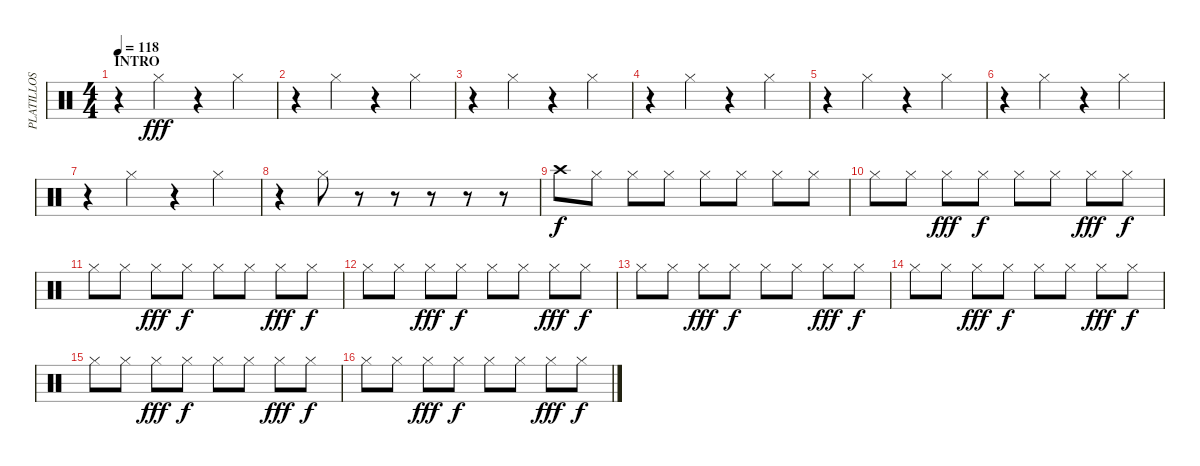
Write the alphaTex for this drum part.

\track ("PLATILLOS" "PLATILLOS") {instrument percussion}
\staff {score}
\articulation defaults
\ts (4 4)
\section ("" "INTRO")
\tempo 118
\clef neutral
\ks c
r.4{dy fff} "Hi-Hat (closed)".4 r.4 "Hi-Hat (closed)".4 |
r.4 "Hi-Hat (closed)".4 r.4 "Hi-Hat (closed)".4 |
r.4 "Hi-Hat (closed)".4 r.4 "Hi-Hat (closed)".4 |
r.4 "Hi-Hat (closed)".4 r.4 "Hi-Hat (closed)".4 |
r.4 "Hi-Hat (closed)".4 r.4 "Hi-Hat (closed)".4 |
r.4 "Hi-Hat (closed)".4 r.4 "Hi-Hat (closed)".4 |
r.4 "Hi-Hat (closed)".4 r.4 "Hi-Hat (closed)".4 |
r.4 "Hi-Hat (closed)".8 r.8 r.8 r.8 r.8 r.8 |
\section ("" "")
"Crash high (hit)".8{dy f} "Hi-Hat (closed)".8 "Hi-Hat (closed)".8 "Hi-Hat (closed)".8 "Hi-Hat (closed)".8 "Hi-Hat (closed)".8 "Hi-Hat (closed)".8 "Hi-Hat (closed)".8 |
"Hi-Hat (closed)".8 "Hi-Hat (closed)".8 "Hi-Hat (closed)".8{dy fff} "Hi-Hat (closed)".8{dy f} "Hi-Hat (closed)".8 "Hi-Hat (closed)".8 "Hi-Hat (closed)".8{dy fff} "Hi-Hat (closed)".8{dy f} |
"Hi-Hat (closed)".8 "Hi-Hat (closed)".8 "Hi-Hat (closed)".8{dy fff} "Hi-Hat (closed)".8{dy f} "Hi-Hat (closed)".8 "Hi-Hat (closed)".8 "Hi-Hat (closed)".8{dy fff} "Hi-Hat (closed)".8{dy f} |
"Hi-Hat (closed)".8 "Hi-Hat (closed)".8 "Hi-Hat (closed)".8{dy fff} "Hi-Hat (closed)".8{dy f} "Hi-Hat (closed)".8 "Hi-Hat (closed)".8 "Hi-Hat (closed)".8{dy fff} "Hi-Hat (closed)".8{dy f} |
"Hi-Hat (closed)".8 "Hi-Hat (closed)".8 "Hi-Hat (closed)".8{dy fff} "Hi-Hat (closed)".8{dy f} "Hi-Hat (closed)".8 "Hi-Hat (closed)".8 "Hi-Hat (closed)".8{dy fff} "Hi-Hat (closed)".8{dy f} |
"Hi-Hat (closed)".8 "Hi-Hat (closed)".8 "Hi-Hat (closed)".8{dy fff} "Hi-Hat (closed)".8{dy f} "Hi-Hat (closed)".8 "Hi-Hat (closed)".8 "Hi-Hat (closed)".8{dy fff} "Hi-Hat (closed)".8{dy f} |
"Hi-Hat (closed)".8 "Hi-Hat (closed)".8 "Hi-Hat (closed)".8{dy fff} "Hi-Hat (closed)".8{dy f} "Hi-Hat (closed)".8 "Hi-Hat (closed)".8 "Hi-Hat (closed)".8{dy fff} "Hi-Hat (closed)".8{dy f} |
"Hi-Hat (closed)".8 "Hi-Hat (closed)".8 "Hi-Hat (closed)".8{dy fff} "Hi-Hat (closed)".8{dy f} "Hi-Hat (closed)".8 "Hi-Hat (closed)".8 "Hi-Hat (closed)".8{dy fff} "Hi-Hat (closed)".8{dy f}
